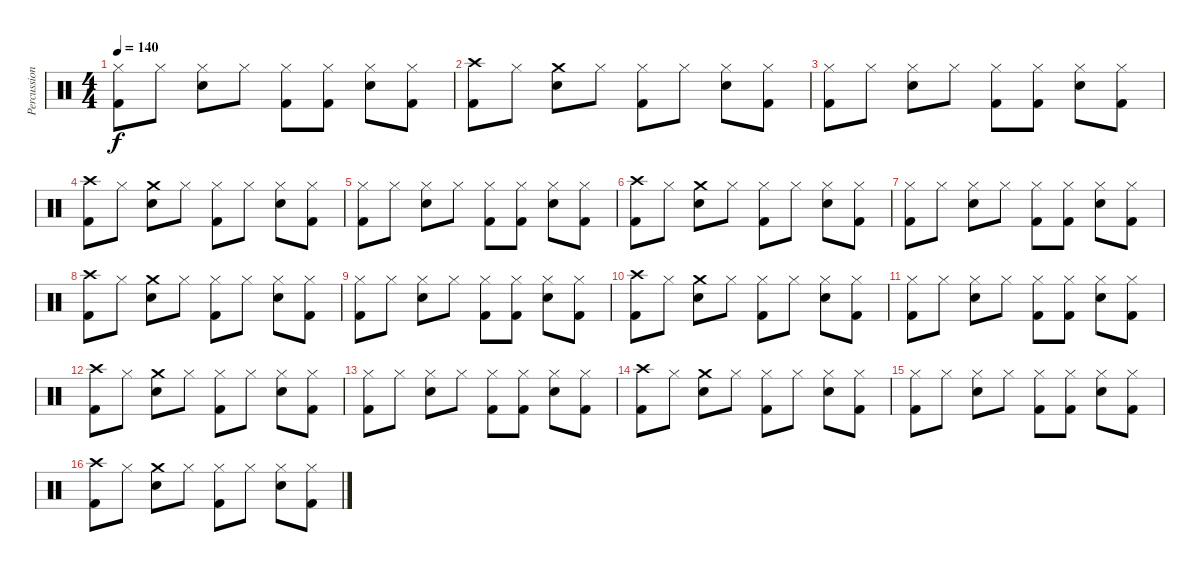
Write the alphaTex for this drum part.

\track ("Percussion" "Percussion") {instrument percussion}
\staff {score}
\articulation defaults
\ts (4 4)
\tempo 140
\clef neutral
\ks c
("Hi-Hat (closed)" "Kick (hit) 2").8{dy f} "Hi-Hat (closed)".8 ("Hi-Hat (closed)" "Snare (hit) 2").8 "Hi-Hat (closed)".8 ("Hi-Hat (closed)" "Kick (hit) 2").8 ("Hi-Hat (closed)" "Kick (hit) 2").8 ("Hi-Hat (closed)" "Snare (hit) 2").8 ("Hi-Hat (closed)" "Kick (hit) 2").8 |
("Crash high (hit)" "Kick (hit) 2").8 "Hi-Hat (closed)".8 ("Crash medium (hit)" "Snare (hit) 2").8 "Hi-Hat (closed)".8 ("Hi-Hat (closed)" "Kick (hit) 2").8 "Hi-Hat (closed)".8 ("Hi-Hat (closed)" "Snare (hit) 2").8 ("Hi-Hat (closed)" "Kick (hit) 2").8 |
("Hi-Hat (closed)" "Kick (hit) 2").8 "Hi-Hat (closed)".8 ("Hi-Hat (closed)" "Snare (hit) 2").8 "Hi-Hat (closed)".8 ("Hi-Hat (closed)" "Kick (hit) 2").8 ("Hi-Hat (closed)" "Kick (hit) 2").8 ("Hi-Hat (closed)" "Snare (hit) 2").8 ("Hi-Hat (closed)" "Kick (hit) 2").8 |
("Crash high (hit)" "Kick (hit) 2").8 "Hi-Hat (closed)".8 ("Crash medium (hit)" "Snare (hit) 2").8 "Hi-Hat (closed)".8 ("Hi-Hat (closed)" "Kick (hit) 2").8 "Hi-Hat (closed)".8 ("Hi-Hat (closed)" "Snare (hit) 2").8 ("Hi-Hat (closed)" "Kick (hit) 2").8 |
("Hi-Hat (closed)" "Kick (hit) 2").8 "Hi-Hat (closed)".8 ("Hi-Hat (closed)" "Snare (hit) 2").8 "Hi-Hat (closed)".8 ("Hi-Hat (closed)" "Kick (hit) 2").8 ("Hi-Hat (closed)" "Kick (hit) 2").8 ("Hi-Hat (closed)" "Snare (hit) 2").8 ("Hi-Hat (closed)" "Kick (hit) 2").8 |
("Crash high (hit)" "Kick (hit) 2").8 "Hi-Hat (closed)".8 ("Crash medium (hit)" "Snare (hit) 2").8 "Hi-Hat (closed)".8 ("Hi-Hat (closed)" "Kick (hit) 2").8 "Hi-Hat (closed)".8 ("Hi-Hat (closed)" "Snare (hit) 2").8 ("Hi-Hat (closed)" "Kick (hit) 2").8 |
("Hi-Hat (closed)" "Kick (hit) 2").8 "Hi-Hat (closed)".8 ("Hi-Hat (closed)" "Snare (hit) 2").8 "Hi-Hat (closed)".8 ("Hi-Hat (closed)" "Kick (hit) 2").8 ("Hi-Hat (closed)" "Kick (hit) 2").8 ("Hi-Hat (closed)" "Snare (hit) 2").8 ("Hi-Hat (closed)" "Kick (hit) 2").8 |
("Crash high (hit)" "Kick (hit) 2").8 "Hi-Hat (closed)".8 ("Crash medium (hit)" "Snare (hit) 2").8 "Hi-Hat (closed)".8 ("Hi-Hat (closed)" "Kick (hit) 2").8 "Hi-Hat (closed)".8 ("Hi-Hat (closed)" "Snare (hit) 2").8 ("Hi-Hat (closed)" "Kick (hit) 2").8 |
("Hi-Hat (closed)" "Kick (hit) 2").8 "Hi-Hat (closed)".8 ("Hi-Hat (closed)" "Snare (hit) 2").8 "Hi-Hat (closed)".8 ("Hi-Hat (closed)" "Kick (hit) 2").8 ("Hi-Hat (closed)" "Kick (hit) 2").8 ("Hi-Hat (closed)" "Snare (hit) 2").8 ("Hi-Hat (closed)" "Kick (hit) 2").8 |
("Crash high (hit)" "Kick (hit) 2").8 "Hi-Hat (closed)".8 ("Crash medium (hit)" "Snare (hit) 2").8 "Hi-Hat (closed)".8 ("Hi-Hat (closed)" "Kick (hit) 2").8 "Hi-Hat (closed)".8 ("Hi-Hat (closed)" "Snare (hit) 2").8 ("Hi-Hat (closed)" "Kick (hit) 2").8 |
("Hi-Hat (closed)" "Kick (hit) 2").8 "Hi-Hat (closed)".8 ("Hi-Hat (closed)" "Snare (hit) 2").8 "Hi-Hat (closed)".8 ("Hi-Hat (closed)" "Kick (hit) 2").8 ("Hi-Hat (closed)" "Kick (hit) 2").8 ("Hi-Hat (closed)" "Snare (hit) 2").8 ("Hi-Hat (closed)" "Kick (hit) 2").8 |
("Crash high (hit)" "Kick (hit) 2").8 "Hi-Hat (closed)".8 ("Crash medium (hit)" "Snare (hit) 2").8 "Hi-Hat (closed)".8 ("Hi-Hat (closed)" "Kick (hit) 2").8 "Hi-Hat (closed)".8 ("Hi-Hat (closed)" "Snare (hit) 2").8 ("Hi-Hat (closed)" "Kick (hit) 2").8 |
("Hi-Hat (closed)" "Kick (hit) 2").8 "Hi-Hat (closed)".8 ("Hi-Hat (closed)" "Snare (hit) 2").8 "Hi-Hat (closed)".8 ("Hi-Hat (closed)" "Kick (hit) 2").8 ("Hi-Hat (closed)" "Kick (hit) 2").8 ("Hi-Hat (closed)" "Snare (hit) 2").8 ("Hi-Hat (closed)" "Kick (hit) 2").8 |
("Crash high (hit)" "Kick (hit) 2").8 "Hi-Hat (closed)".8 ("Crash medium (hit)" "Snare (hit) 2").8 "Hi-Hat (closed)".8 ("Hi-Hat (closed)" "Kick (hit) 2").8 "Hi-Hat (closed)".8 ("Hi-Hat (closed)" "Snare (hit) 2").8 ("Hi-Hat (closed)" "Kick (hit) 2").8 |
("Hi-Hat (closed)" "Kick (hit) 2").8 "Hi-Hat (closed)".8 ("Hi-Hat (closed)" "Snare (hit) 2").8 "Hi-Hat (closed)".8 ("Hi-Hat (closed)" "Kick (hit) 2").8 ("Hi-Hat (closed)" "Kick (hit) 2").8 ("Hi-Hat (closed)" "Snare (hit) 2").8 ("Hi-Hat (closed)" "Kick (hit) 2").8 |
("Crash high (hit)" "Kick (hit) 2").8 "Hi-Hat (closed)".8 ("Crash medium (hit)" "Snare (hit) 2").8 "Hi-Hat (closed)".8 ("Hi-Hat (closed)" "Kick (hit) 2").8 "Hi-Hat (closed)".8 ("Hi-Hat (closed)" "Snare (hit) 2").8 ("Hi-Hat (closed)" "Kick (hit) 2").8
